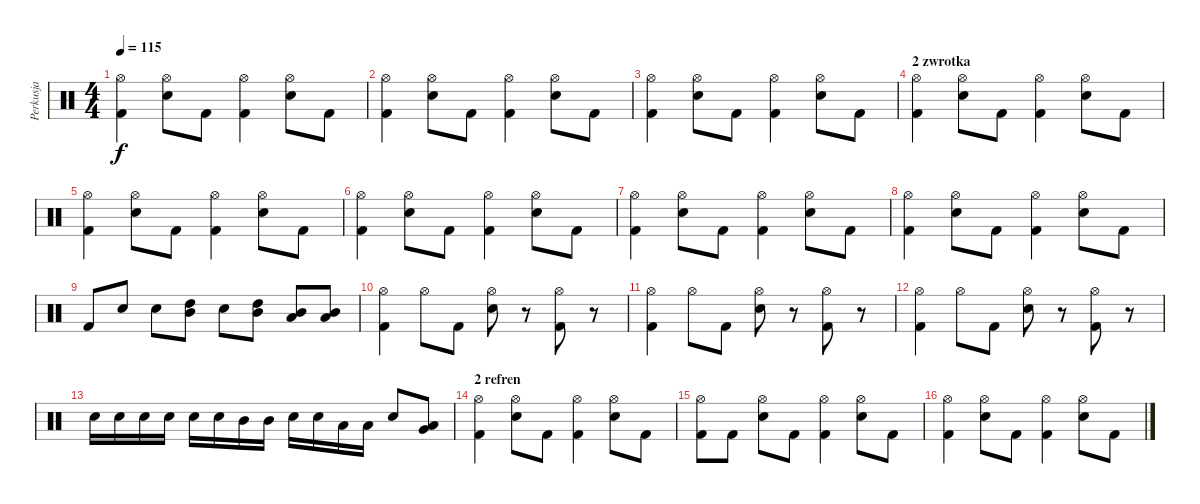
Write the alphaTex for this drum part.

\track ("Perkusja" "Perkusja") {instrument percussion}
\staff {score}
\articulation defaults
\ts (4 4)
\tempo 115
\clef neutral
\ks c
("Hi-Hat (open)" "Kick (hit) 2").4{dy f} ("Hi-Hat (open)" "Snare (hit) 2").8 "Kick (hit) 2".8 ("Hi-Hat (open)" "Kick (hit) 2").4 ("Hi-Hat (open)" "Snare (hit) 2").8 "Kick (hit) 2".8 |
("Hi-Hat (open)" "Kick (hit) 2").4 ("Hi-Hat (open)" "Snare (hit) 2").8 "Kick (hit) 2".8 ("Hi-Hat (open)" "Kick (hit) 2").4 ("Hi-Hat (open)" "Snare (hit) 2").8 "Kick (hit) 2".8 |
("Hi-Hat (open)" "Kick (hit) 2").4 ("Hi-Hat (open)" "Snare (hit) 2").8 "Kick (hit) 2".8 ("Hi-Hat (open)" "Kick (hit) 2").4 ("Hi-Hat (open)" "Snare (hit) 2").8 "Kick (hit) 2".8 |
\section ("" "2 zwrotka")
("Hi-Hat (open)" "Kick (hit) 2").4 ("Hi-Hat (open)" "Snare (hit) 2").8 "Kick (hit) 2".8 ("Hi-Hat (open)" "Kick (hit) 2").4 ("Hi-Hat (open)" "Snare (hit) 2").8 "Kick (hit) 2".8 |
("Hi-Hat (open)" "Kick (hit) 2").4 ("Hi-Hat (open)" "Snare (hit) 2").8 "Kick (hit) 2".8 ("Hi-Hat (open)" "Kick (hit) 2").4 ("Hi-Hat (open)" "Snare (hit) 2").8 "Kick (hit) 2".8 |
("Hi-Hat (open)" "Kick (hit) 2").4 ("Hi-Hat (open)" "Snare (hit) 2").8 "Kick (hit) 2".8 ("Hi-Hat (open)" "Kick (hit) 2").4 ("Hi-Hat (open)" "Snare (hit) 2").8 "Kick (hit) 2".8 |
("Hi-Hat (open)" "Kick (hit) 2").4 ("Hi-Hat (open)" "Snare (hit) 2").8 "Kick (hit) 2".8 ("Hi-Hat (open)" "Kick (hit) 2").4 ("Hi-Hat (open)" "Snare (hit) 2").8 "Kick (hit) 2".8 |
("Hi-Hat (open)" "Kick (hit) 2").4 ("Hi-Hat (open)" "Snare (hit) 2").8 "Kick (hit) 2".8 ("Hi-Hat (open)" "Kick (hit) 2").4 ("Hi-Hat (open)" "Snare (hit) 2").8 "Kick (hit) 2".8 |
"Kick (hit) 2".8 "Snare (hit) 2".8 "Snare (hit) 2".8 ("Mid Tom (hit)" "High Tom (hit)").8 "Snare (hit) 2".8 ("Mid Tom (hit)" "High Tom (hit)").8 ("Low Tom (hit)" "Mid Tom (hit)").8 ("Low Tom (hit)" "Mid Tom (hit)").8 |
("Hi-Hat (open)" "Kick (hit) 2").4 "Hi-Hat (open)".8 "Kick (hit) 2".8 ("Hi-Hat (open)" "Snare (hit) 2").8 r.8 ("Hi-Hat (open)" "Kick (hit) 2").8 r.8 |
("Hi-Hat (open)" "Kick (hit) 2").4 "Hi-Hat (open)".8 "Kick (hit) 2".8 ("Hi-Hat (open)" "Snare (hit) 2").8 r.8 ("Hi-Hat (open)" "Kick (hit) 2").8 r.8 |
("Hi-Hat (open)" "Kick (hit) 2").4 "Hi-Hat (open)".8 "Kick (hit) 2".8 ("Hi-Hat (open)" "Snare (hit) 2").8 r.8 ("Hi-Hat (open)" "Kick (hit) 2").8 r.8 |
"Snare (hit) 2".16 "Snare (hit) 2".16 "Snare (hit) 2".16 "Snare (hit) 2".16 "Snare (hit) 2".16 "Snare (hit) 2".16 "Mid Tom (hit)".16 "Mid Tom (hit)".16 "Snare (hit) 2".16 "Snare (hit) 2".16 "Low Tom (hit)".16 "Low Tom (hit)".16 "Snare (hit) 2".8 ("Very Low Tom (hit)" "Low Tom (hit)").8 |
\section ("" "2 refren")
("Hi-Hat (open)" "Kick (hit) 2").4 ("Hi-Hat (open)" "Snare (hit) 2").8 "Kick (hit) 2".8 ("Hi-Hat (open)" "Kick (hit) 2").4 ("Hi-Hat (open)" "Snare (hit) 2").8 "Kick (hit) 2".8 |
("Hi-Hat (open)" "Kick (hit) 2").8 "Kick (hit) 2".8 ("Hi-Hat (open)" "Snare (hit) 2").8 "Kick (hit) 2".8 ("Hi-Hat (open)" "Kick (hit) 2").4 ("Hi-Hat (open)" "Snare (hit) 2").8 "Kick (hit) 2".8 |
("Hi-Hat (open)" "Kick (hit) 2").4 ("Hi-Hat (open)" "Snare (hit) 2").8 "Kick (hit) 2".8 ("Hi-Hat (open)" "Kick (hit) 2").4 ("Hi-Hat (open)" "Snare (hit) 2").8 "Kick (hit) 2".8
